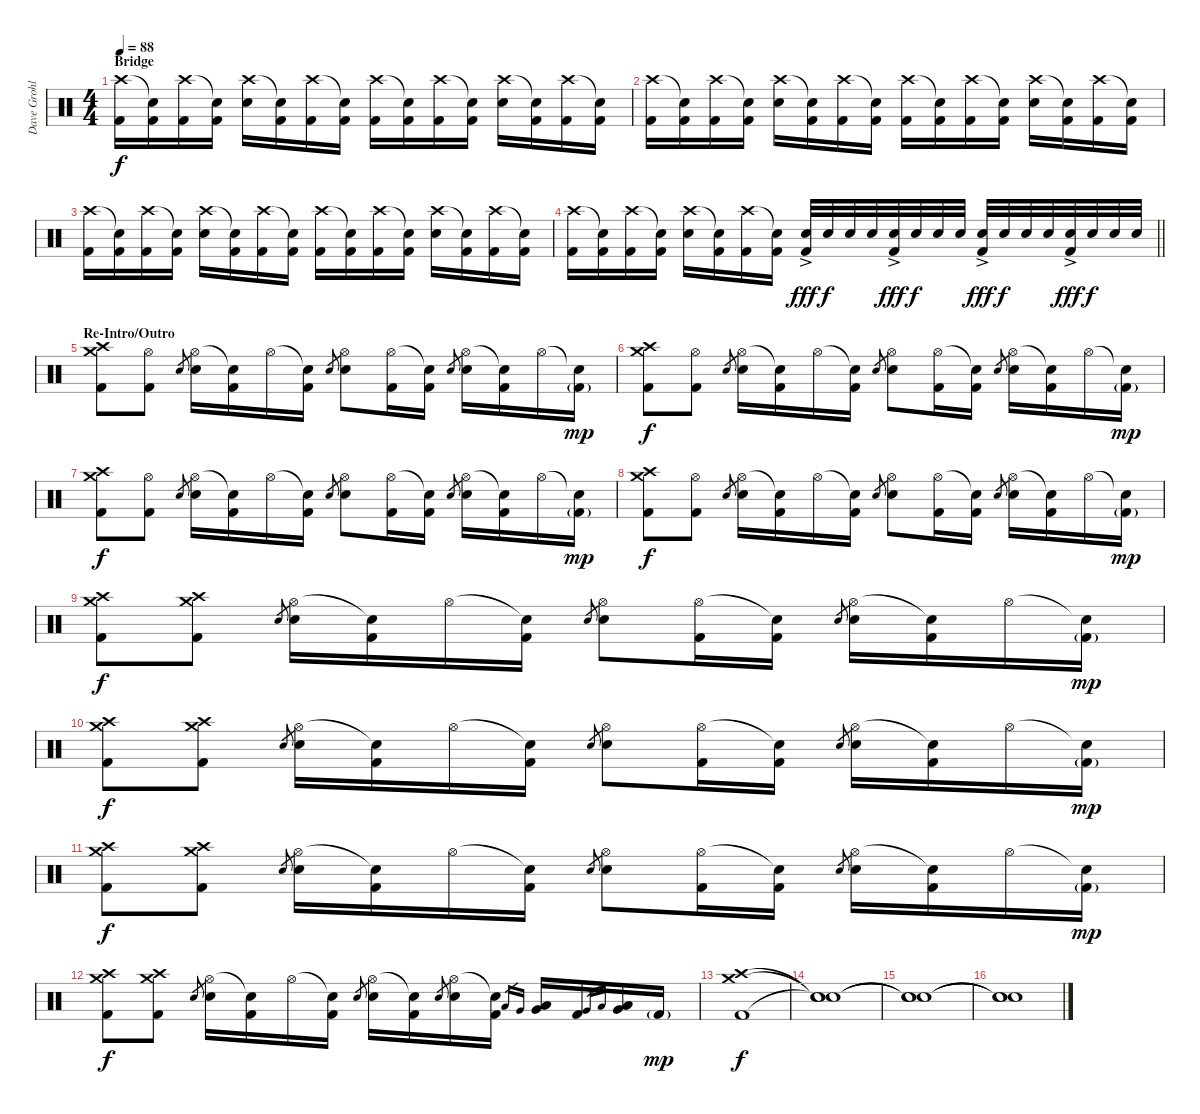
\track ("Dave Grohl - Drums" "Dave Grohl") {instrument percussion}
\staff {score}
\articulation defaults
\ts (4 4)
\section ("" "Bridge")
\tempo 88
\clef neutral
\ks c
("Crash high (hit)" "Kick (hit) 2").16{dy f} ("Snare (hit)"{t} "Kick (hit) 2").16 ("Crash high (hit)" "Kick (hit) 2").16 ("Snare (hit)"{t} "Kick (hit) 2").16 ("Crash high (hit)" "Electric Snare (hit)").16 ("Snare (hit)"{t} "Kick (hit) 2").16 ("Crash high (hit)" "Kick (hit) 2").16 ("Snare (hit)"{t} "Kick (hit) 2").16 ("Crash high (hit)" "Kick (hit) 2").16 ("Snare (hit)"{t} "Kick (hit) 2").16 ("Crash high (hit)" "Kick (hit) 2").16 ("Snare (hit)"{t} "Kick (hit) 2").16 ("Crash high (hit)" "Electric Snare (hit)").16 ("Snare (hit)"{t} "Kick (hit) 2").16 ("Crash high (hit)" "Kick (hit) 2").16 ("Snare (hit)"{t} "Kick (hit) 2").16 |
("Crash high (hit)" "Kick (hit) 2").16 ("Snare (hit)"{t} "Kick (hit) 2").16 ("Crash high (hit)" "Kick (hit) 2").16 ("Snare (hit)"{t} "Kick (hit) 2").16 ("Crash high (hit)" "Electric Snare (hit)").16 ("Snare (hit)"{t} "Kick (hit) 2").16 ("Crash high (hit)" "Kick (hit) 2").16 ("Snare (hit)"{t} "Kick (hit) 2").16 ("Crash high (hit)" "Kick (hit) 2").16 ("Snare (hit)"{t} "Kick (hit) 2").16 ("Crash high (hit)" "Kick (hit) 2").16 ("Snare (hit)"{t} "Kick (hit) 2").16 ("Crash high (hit)" "Electric Snare (hit)").16 ("Snare (hit)"{t} "Kick (hit) 2").16 ("Crash high (hit)" "Kick (hit) 2").16 ("Snare (hit)"{t} "Kick (hit) 2").16 |
("Crash high (hit)" "Kick (hit) 2").16 ("Snare (hit)"{t} "Kick (hit) 2").16 ("Crash high (hit)" "Kick (hit) 2").16 ("Snare (hit)"{t} "Kick (hit) 2").16 ("Crash high (hit)" "Electric Snare (hit)").16 ("Snare (hit)"{t} "Kick (hit) 2").16 ("Crash high (hit)" "Kick (hit) 2").16 ("Snare (hit)"{t} "Kick (hit) 2").16 ("Crash high (hit)" "Kick (hit) 2").16 ("Snare (hit)"{t} "Kick (hit) 2").16 ("Crash high (hit)" "Kick (hit) 2").16 ("Snare (hit)"{t} "Kick (hit) 2").16 ("Crash high (hit)" "Electric Snare (hit)").16 ("Snare (hit)"{t} "Kick (hit) 2").16 ("Crash high (hit)" "Kick (hit) 2").16 ("Snare (hit)"{t} "Kick (hit) 2").16 |
\barLineRight lightlight
("Crash high (hit)" "Kick (hit) 2").16 ("Snare (hit)"{t} "Kick (hit) 2").16 ("Crash high (hit)" "Kick (hit) 2").16 ("Snare (hit)"{t} "Kick (hit) 2").16 ("Crash high (hit)" "Electric Snare (hit)").16 ("Snare (hit)"{t} "Kick (hit) 2").16 ("Crash high (hit)" "Kick (hit) 2").16 ("Snare (hit)"{t} "Kick (hit) 2").16 ("Electric Snare (hit)"{ac} "Kick (hit) 2").32{dy fff} "Electric Snare (hit)".32{dy f} "Electric Snare (hit)".32 "Electric Snare (hit)".32 ("Electric Snare (hit)"{ac} "Kick (hit) 2").32{dy fff} "Electric Snare (hit)".32{dy f} "Electric Snare (hit)".32 "Electric Snare (hit)".32 ("Electric Snare (hit)"{ac} "Kick (hit) 2").32{dy fff} "Electric Snare (hit)".32{dy f} "Electric Snare (hit)".32 "Electric Snare (hit)".32 ("Electric Snare (hit)"{ac} "Kick (hit) 2").32{dy fff} "Electric Snare (hit)".32{dy f} "Electric Snare (hit)".32 "Electric Snare (hit)".32 |
\section ("" "Re-Intro/Outro")
("Crash high (hit)" "Crash medium (hit)" "Kick (hit) 2").8 ("Hi-Hat (open)" "Kick (hit) 2").8 "Electric Snare (hit)".8{gr} ("Hi-Hat (open)" "Electric Snare (hit)").16 ("Snare (hit)"{t} "Kick (hit) 2").16 "Hi-Hat (open)".16 ("Snare (hit)"{t} "Kick (hit) 2").16 "Electric Snare (hit)".8{gr} ("Hi-Hat (open)" "Electric Snare (hit)").8 ("Hi-Hat (open)" "Kick (hit) 2").16 ("Snare (hit)"{t} "Kick (hit) 2").16 "Electric Snare (hit)".8{gr} ("Hi-Hat (open)" "Electric Snare (hit)").16 ("Snare (hit)"{t} "Kick (hit) 2").16 "Hi-Hat (open)".16 ("Snare (hit)"{t} "Kick (hit) 2"{g}).16{dy mp} |
("Crash high (hit)" "Crash medium (hit)" "Kick (hit) 2").8{dy f} ("Hi-Hat (open)" "Kick (hit) 2").8 "Electric Snare (hit)".8{gr} ("Hi-Hat (open)" "Electric Snare (hit)").16 ("Snare (hit)"{t} "Kick (hit) 2").16 "Hi-Hat (open)".16 ("Snare (hit)"{t} "Kick (hit) 2").16 "Electric Snare (hit)".8{gr} ("Hi-Hat (open)" "Electric Snare (hit)").8 ("Hi-Hat (open)" "Kick (hit) 2").16 ("Snare (hit)"{t} "Kick (hit) 2").16 "Electric Snare (hit)".8{gr} ("Hi-Hat (open)" "Electric Snare (hit)").16 ("Snare (hit)"{t} "Kick (hit) 2").16 "Hi-Hat (open)".16 ("Snare (hit)"{t} "Kick (hit) 2"{g}).16{dy mp} |
("Crash high (hit)" "Crash medium (hit)" "Kick (hit) 2").8{dy f} ("Hi-Hat (open)" "Kick (hit) 2").8 "Electric Snare (hit)".8{gr} ("Hi-Hat (open)" "Electric Snare (hit)").16 ("Snare (hit)"{t} "Kick (hit) 2").16 "Hi-Hat (open)".16 ("Snare (hit)"{t} "Kick (hit) 2").16 "Electric Snare (hit)".8{gr} ("Hi-Hat (open)" "Electric Snare (hit)").8 ("Hi-Hat (open)" "Kick (hit) 2").16 ("Snare (hit)"{t} "Kick (hit) 2").16 "Electric Snare (hit)".8{gr} ("Hi-Hat (open)" "Electric Snare (hit)").16 ("Snare (hit)"{t} "Kick (hit) 2").16 "Hi-Hat (open)".16 ("Snare (hit)"{t} "Kick (hit) 2"{g}).16{dy mp} |
("Crash high (hit)" "Crash medium (hit)" "Kick (hit) 2").8{dy f} ("Hi-Hat (open)" "Kick (hit) 2").8 "Electric Snare (hit)".8{gr} ("Hi-Hat (open)" "Electric Snare (hit)").16 ("Snare (hit)"{t} "Kick (hit) 2").16 "Hi-Hat (open)".16 ("Snare (hit)"{t} "Kick (hit) 2").16 "Electric Snare (hit)".8{gr} ("Hi-Hat (open)" "Electric Snare (hit)").8 ("Hi-Hat (open)" "Kick (hit) 2").16 ("Snare (hit)"{t} "Kick (hit) 2").16 "Electric Snare (hit)".8{gr} ("Hi-Hat (open)" "Electric Snare (hit)").16 ("Snare (hit)"{t} "Kick (hit) 2").16 "Hi-Hat (open)".16 ("Snare (hit)"{t} "Kick (hit) 2"{g}).16{dy mp} |
("Crash high (hit)" "Crash medium (hit)" "Kick (hit) 2").8{dy f} ("Crash high (hit)" "Crash medium (hit)" "Kick (hit) 2").8 "Electric Snare (hit)".8{gr} ("Hi-Hat (open)" "Electric Snare (hit)").16 ("Snare (hit)"{t} "Kick (hit) 2").16 "Hi-Hat (open)".16 ("Snare (hit)"{t} "Kick (hit) 2").16 "Electric Snare (hit)".8{gr} ("Hi-Hat (open)" "Electric Snare (hit)").8 ("Hi-Hat (open)" "Kick (hit) 2").16 ("Snare (hit)"{t} "Kick (hit) 2").16 "Electric Snare (hit)".8{gr} ("Hi-Hat (open)" "Electric Snare (hit)").16 ("Snare (hit)"{t} "Kick (hit) 2").16 "Hi-Hat (open)".16 ("Snare (hit)"{t} "Kick (hit) 2"{g}).16{dy mp} |
("Crash high (hit)" "Crash medium (hit)" "Kick (hit) 2").8{dy f} ("Crash high (hit)" "Crash medium (hit)" "Kick (hit) 2").8 "Electric Snare (hit)".8{gr} ("Hi-Hat (open)" "Electric Snare (hit)").16 ("Snare (hit)"{t} "Kick (hit) 2").16 "Hi-Hat (open)".16 ("Snare (hit)"{t} "Kick (hit) 2").16 "Electric Snare (hit)".8{gr} ("Hi-Hat (open)" "Electric Snare (hit)").8 ("Hi-Hat (open)" "Kick (hit) 2").16 ("Snare (hit)"{t} "Kick (hit) 2").16 "Electric Snare (hit)".8{gr} ("Hi-Hat (open)" "Electric Snare (hit)").16 ("Snare (hit)"{t} "Kick (hit) 2").16 "Hi-Hat (open)".16 ("Snare (hit)"{t} "Kick (hit) 2"{g}).16{dy mp} |
("Crash high (hit)" "Crash medium (hit)" "Kick (hit) 2").8{dy f} ("Crash high (hit)" "Crash medium (hit)" "Kick (hit) 2").8 "Electric Snare (hit)".8{gr} ("Hi-Hat (open)" "Electric Snare (hit)").16 ("Snare (hit)"{t} "Kick (hit) 2").16 "Hi-Hat (open)".16 ("Snare (hit)"{t} "Kick (hit) 2").16 "Electric Snare (hit)".8{gr} ("Hi-Hat (open)" "Electric Snare (hit)").8 ("Hi-Hat (open)" "Kick (hit) 2").16 ("Snare (hit)"{t} "Kick (hit) 2").16 "Electric Snare (hit)".8{gr} ("Hi-Hat (open)" "Electric Snare (hit)").16 ("Snare (hit)"{t} "Kick (hit) 2").16 "Hi-Hat (open)".16 ("Snare (hit)"{t} "Kick (hit) 2"{g}).16{dy mp} |
("Crash high (hit)" "Crash medium (hit)" "Kick (hit) 2").8{dy f} ("Crash high (hit)" "Crash medium (hit)" "Kick (hit) 2").8 "Electric Snare (hit)".8{gr} ("Hi-Hat (open)" "Electric Snare (hit)").16 ("Snare (hit)"{t} "Kick (hit) 2").16 "Hi-Hat (open)".16 ("Snare (hit)"{t} "Kick (hit) 2").16 "Electric Snare (hit)".8{gr} ("Hi-Hat (open)" "Electric Snare (hit)").16 ("Snare (hit)"{t} "Kick (hit) 2").16 "Electric Snare (hit)".8{gr} ("Hi-Hat (open)" "Electric Snare (hit)").16 ("Snare (hit)"{t} "Kick (hit) 2").16 "Low Tom (hit)".16{gr} "Very Low Tom (hit)".16{gr} ("Low Tom (hit)" "Very Low Tom (hit)").16 "Kick (hit) 2".16 "Very Low Tom (hit)".16{gr} "Low Floor Tom (hit)".16{gr} ("Very Low Tom (hit)" "Low Floor Tom (hit)").16 "Kick (hit) 2"{g}.16{dy mp} |
("Crash high (hit)" "Crash medium (hit)" "Kick (hit) 2").1{dy f} |
("Snare (hit)"{t} "Snare (hit)"{t} "Snare (hit)"{t}).1 |
("Snare (hit)"{t} "Snare (hit)"{t} "Snare (hit)"{t}).1 |
("Snare (hit)"{t} "Snare (hit)"{t} "Snare (hit)"{t}).1
